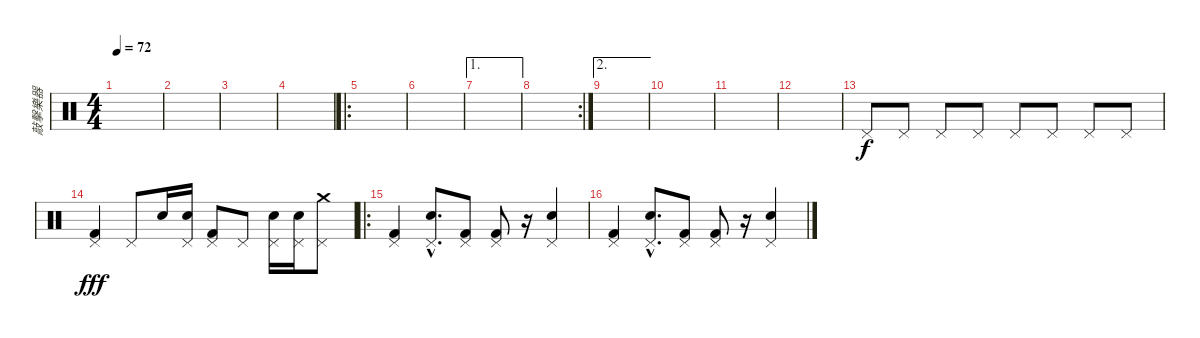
\track ("敲擊樂器" "敲擊樂器") {instrument percussion}
\staff {score}
\articulation defaults
\ts (4 4)
\tempo 72
\clef neutral
\ks c
|
|
|
|
\ro
|
|
\ae 1
|
\rc 2
|
\ae 2
|
|
|
|
"Pedal Hi-Hat (hit)".8 "Pedal Hi-Hat (hit)".8 "Pedal Hi-Hat (hit)".8 "Pedal Hi-Hat (hit)".8 "Pedal Hi-Hat (hit)".8 "Pedal Hi-Hat (hit)".8 "Pedal Hi-Hat (hit)".8 "Pedal Hi-Hat (hit)".8 |
("Kick (hit) 2" "Pedal Hi-Hat (hit)").4{dy fff} "Pedal Hi-Hat (hit)".8 "Electric Snare (hit)".16 ("Electric Snare (hit)" "Pedal Hi-Hat (hit)").16 ("Kick (hit) 2" "Pedal Hi-Hat (hit)").8 "Pedal Hi-Hat (hit)".8 ("Electric Snare (hit)" "Pedal Hi-Hat (hit)").16 ("Electric Snare (hit)" "Pedal Hi-Hat (hit)").16 ("Crash medium (hit)" "Pedal Hi-Hat (hit)").8 |
\ro
("Kick (hit) 2" "Pedal Hi-Hat (hit)").4 ("Electric Snare (hit)"{hac} "Pedal Hi-Hat (hit)"{hac}).8{d} ("Kick (hit) 2" "Pedal Hi-Hat (hit)").8 ("Kick (hit) 2" "Pedal Hi-Hat (hit)").8 r.16 ("Electric Snare (hit)" "Pedal Hi-Hat (hit)").4 |
("Kick (hit) 2" "Pedal Hi-Hat (hit)").4 ("Electric Snare (hit)"{hac} "Pedal Hi-Hat (hit)"{hac}).8{d} ("Kick (hit) 2" "Pedal Hi-Hat (hit)").8 ("Kick (hit) 2" "Pedal Hi-Hat (hit)").8 r.16 ("Electric Snare (hit)" "Pedal Hi-Hat (hit)").4
